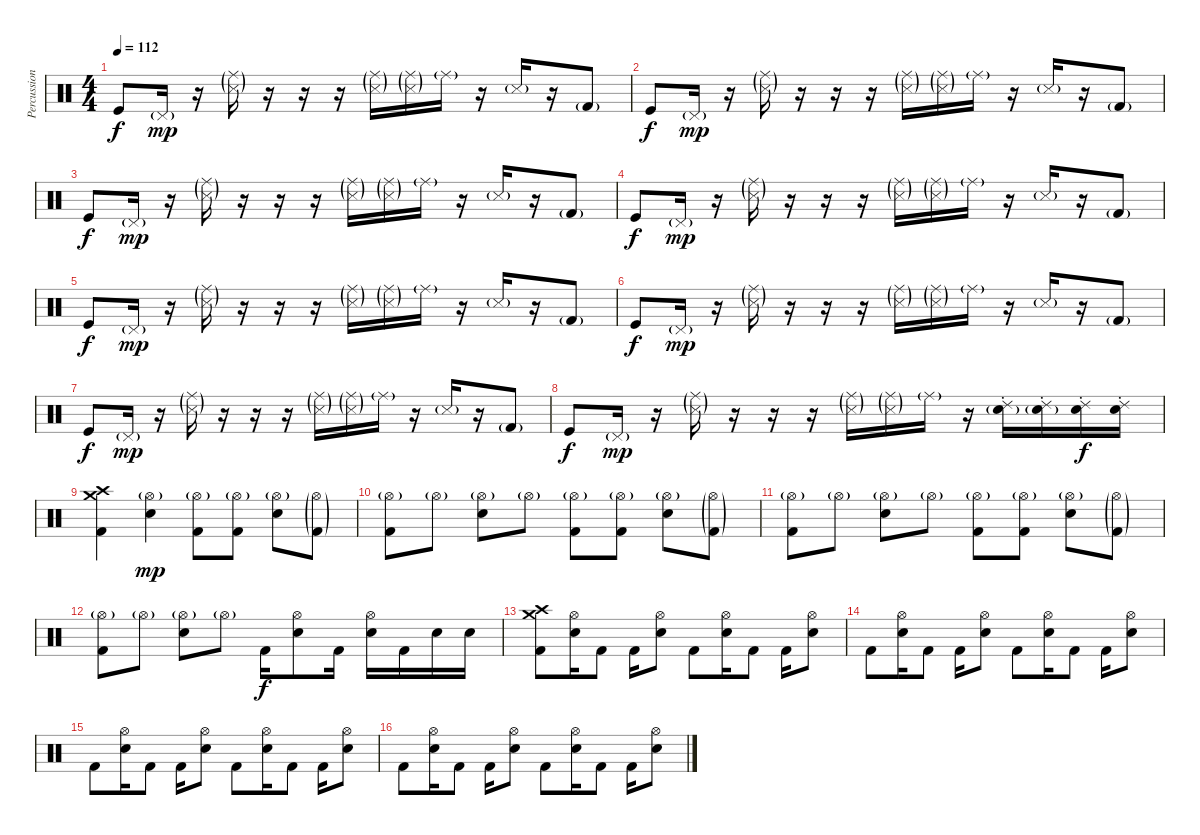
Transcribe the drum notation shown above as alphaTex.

\track ("Percussion" "Percussion") {instrument percussion}
\staff {score}
\articulation defaults
\ts (4 4)
\tempo 112
\clef neutral
\ks c "Kick (hit)".8{dy f} "Pedal Hi-Hat (hit)"{g}.16{dy mp}
r.16 ("Metronome (hit)"{g} "Ride (middle)"{g}).16 r.16 r.16 r.16 ("Metronome (hit)"{g} "Ride (middle)"{g}).16 ("Metronome (hit)"{g} "Ride (middle)"{g}).16 "Ride (middle)"{g}.16 r.16 "Metronome (hit)"{g}.16 r.16 "Kick (hit) 2"{g}.8 |
"Kick (hit)".8{dy f} "Pedal Hi-Hat (hit)"{g}.16{dy mp} r.16 ("Metronome (hit)"{g} "Ride (middle)"{g}).16 r.16 r.16 r.16 ("Metronome (hit)"{g} "Ride (middle)"{g}).16 ("Metronome (hit)"{g} "Ride (middle)"{g}).16 "Ride (middle)"{g}.16 r.16 "Metronome (hit)"{g}.16 r.16 "Kick (hit) 2"{g}.8 |
"Kick (hit)".8{dy f} "Pedal Hi-Hat (hit)"{g}.16{dy mp} r.16 ("Metronome (hit)"{g} "Ride (middle)"{g}).16 r.16 r.16 r.16 ("Metronome (hit)"{g} "Ride (middle)"{g}).16 ("Metronome (hit)"{g} "Ride (middle)"{g}).16 "Ride (middle)"{g}.16 r.16 "Metronome (hit)"{g}.16 r.16 "Kick (hit) 2"{g}.8 |
"Kick (hit)".8{dy f} "Pedal Hi-Hat (hit)"{g}.16{dy mp} r.16 ("Metronome (hit)"{g} "Ride (middle)"{g}).16 r.16 r.16 r.16 ("Metronome (hit)"{g} "Ride (middle)"{g}).16 ("Metronome (hit)"{g} "Ride (middle)"{g}).16 "Ride (middle)"{g}.16 r.16 "Metronome (hit)"{g}.16 r.16 "Kick (hit) 2"{g}.8 |
"Kick (hit)".8{dy f} "Pedal Hi-Hat (hit)"{g}.16{dy mp} r.16 ("Metronome (hit)"{g} "Ride (middle)"{g}).16 r.16 r.16 r.16 ("Metronome (hit)"{g} "Ride (middle)"{g}).16 ("Metronome (hit)"{g} "Ride (middle)"{g}).16 "Ride (middle)"{g}.16 r.16 "Metronome (hit)"{g}.16 r.16 "Kick (hit) 2"{g}.8 |
"Kick (hit)".8{dy f} "Pedal Hi-Hat (hit)"{g}.16{dy mp} r.16 ("Metronome (hit)"{g} "Ride (middle)"{g}).16 r.16 r.16 r.16 ("Metronome (hit)"{g} "Ride (middle)"{g}).16 ("Metronome (hit)"{g} "Ride (middle)"{g}).16 "Ride (middle)"{g}.16 r.16 "Metronome (hit)"{g}.16 r.16 "Kick (hit) 2"{g}.8 |
"Kick (hit)".8{dy f} "Pedal Hi-Hat (hit)"{g}.16{dy mp} r.16 ("Metronome (hit)"{g} "Ride (middle)"{g}).16 r.16 r.16 r.16 ("Metronome (hit)"{g} "Ride (middle)"{g}).16 ("Metronome (hit)"{g} "Ride (middle)"{g}).16 "Ride (middle)"{g}.16 r.16 "Metronome (hit)"{g}.16 r.16 "Kick (hit) 2"{g}.8 |
"Kick (hit)".8{dy f} "Pedal Hi-Hat (hit)"{g}.16{dy mp} r.16 ("Metronome (hit)"{g} "Ride (middle)"{g}).16 r.16 r.16 r.16 ("Metronome (hit)"{g} "Ride (middle)"{g}).16 ("Metronome (hit)"{g} "Ride (middle)"{g}).16 "Ride (middle)"{g}.16 r.16 ("Ride (choke) 2" "Electric Snare (hit)"{g}).16 ("Ride (choke) 2" "Electric Snare (hit)"{g}).16 ("Ride (choke) 2" "Electric Snare (hit)").16{dy f} ("Ride (choke) 2" "Electric Snare (hit)").16 |
("Kick (hit) 2" "Crash high (hit)" "Crash medium (hit)").4 ("Electric Snare (hit)" "Hi-Hat (open)"{g}).4{dy mp} ("Kick (hit) 2" "Hi-Hat (open)"{g}).8 ("Kick (hit) 2" "Hi-Hat (open)"{g}).8 ("Electric Snare (hit)" "Hi-Hat (open)"{g}).8 ("Kick (hit) 2"{g} "Hi-Hat (open)"{g}).8 |
("Kick (hit) 2" "Hi-Hat (open)"{g}).8 "Hi-Hat (open)"{g}.8 ("Electric Snare (hit)" "Hi-Hat (open)"{g}).8 "Hi-Hat (open)"{g}.8 ("Kick (hit) 2" "Hi-Hat (open)"{g}).8 ("Kick (hit) 2" "Hi-Hat (open)"{g}).8 ("Electric Snare (hit)" "Hi-Hat (open)"{g}).8 ("Kick (hit) 2"{g} "Hi-Hat (open)"{g}).8 |
("Kick (hit) 2" "Hi-Hat (open)"{g}).8 "Hi-Hat (open)"{g}.8 ("Electric Snare (hit)" "Hi-Hat (open)"{g}).8 "Hi-Hat (open)"{g}.8 ("Kick (hit) 2" "Hi-Hat (open)"{g}).8 ("Kick (hit) 2" "Hi-Hat (open)"{g}).8 ("Electric Snare (hit)" "Hi-Hat (open)"{g}).8 ("Kick (hit) 2"{g} "Hi-Hat (open)"{g}).8 |
("Kick (hit) 2" "Hi-Hat (open)"{g}).8 "Hi-Hat (open)"{g}.8 ("Electric Snare (hit)" "Hi-Hat (open)"{g}).8 "Hi-Hat (open)"{g}.8 "Kick (hit) 2".16{dy f} ("Electric Snare (hit)" "Hi-Hat (open)").8 "Kick (hit) 2".16 ("Electric Snare (hit)" "Hi-Hat (open)").16 "Kick (hit) 2".16 "Electric Snare (hit)".16 "Electric Snare (hit)".16 |
("Kick (hit) 2" "Crash high (hit)" "Crash medium (hit)").8 ("Electric Snare (hit)" "Hi-Hat (open)").16 "Kick (hit) 2".8 "Kick (hit) 2".16 ("Electric Snare (hit)" "Hi-Hat (open)").8 "Kick (hit) 2".8 ("Electric Snare (hit)" "Hi-Hat (open)").16 "Kick (hit) 2".8 "Kick (hit) 2".16 ("Electric Snare (hit)" "Hi-Hat (open)").8 |
"Kick (hit) 2".8 ("Electric Snare (hit)" "Hi-Hat (open)").16 "Kick (hit) 2".8 "Kick (hit) 2".16 ("Electric Snare (hit)" "Hi-Hat (open)").8 "Kick (hit) 2".8 ("Electric Snare (hit)" "Hi-Hat (open)").16 "Kick (hit) 2".8 "Kick (hit) 2".16 ("Electric Snare (hit)" "Hi-Hat (open)").8 |
"Kick (hit) 2".8 ("Electric Snare (hit)" "Hi-Hat (open)").16 "Kick (hit) 2".8 "Kick (hit) 2".16 ("Electric Snare (hit)" "Hi-Hat (open)").8 "Kick (hit) 2".8 ("Electric Snare (hit)" "Hi-Hat (open)").16 "Kick (hit) 2".8 "Kick (hit) 2".16 ("Electric Snare (hit)" "Hi-Hat (open)").8 |
"Kick (hit) 2".8 ("Electric Snare (hit)" "Hi-Hat (open)").16 "Kick (hit) 2".8 "Kick (hit) 2".16 ("Electric Snare (hit)" "Hi-Hat (open)").8 "Kick (hit) 2".8 ("Electric Snare (hit)" "Hi-Hat (open)").16 "Kick (hit) 2".8 "Kick (hit) 2".16 ("Electric Snare (hit)" "Hi-Hat (open)").8
